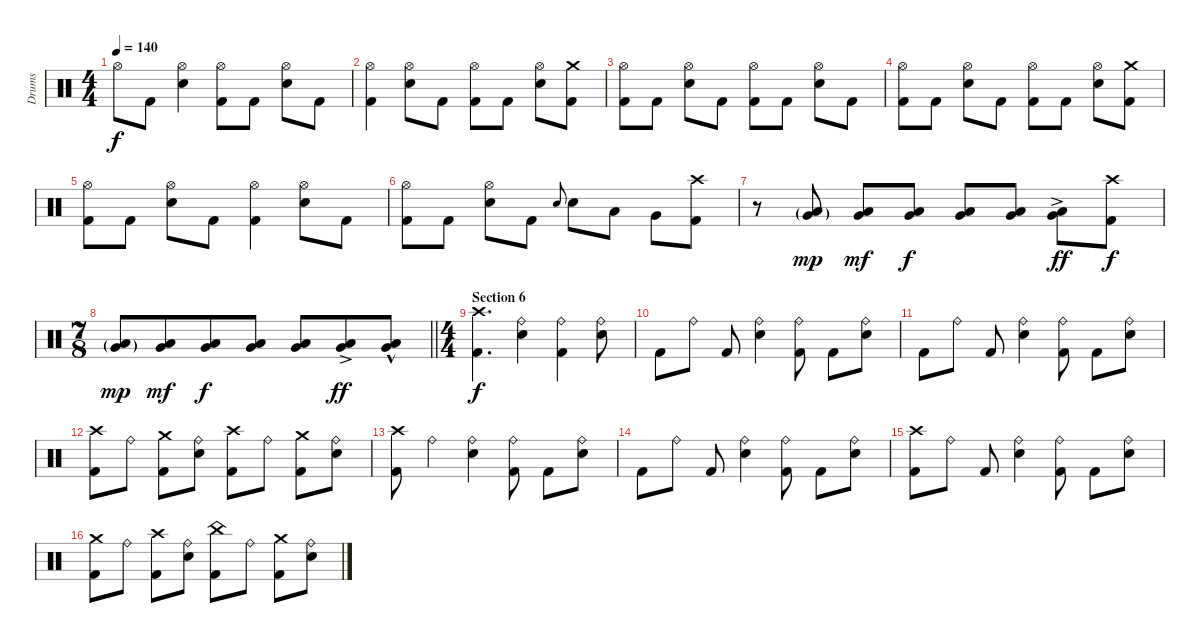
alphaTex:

\track ("Drums" "Drums") {instrument percussion}
\staff {score}
\articulation defaults
\ts (4 4)
\tempo 140
\clef neutral
\ks c "Hi-Hat (open)".8{dy f} "Kick (hit) 2".8
("Hi-Hat (open)" "Snare (hit) 2").4 ("Hi-Hat (open)" "Kick (hit) 2").8 "Kick (hit) 2".8 ("Hi-Hat (open)" "Snare (hit) 2").8 "Kick (hit) 2".8 |
("Hi-Hat (open)" "Kick (hit) 2").4 ("Hi-Hat (open)" "Snare (hit) 2").8 "Kick (hit) 2".8 ("Hi-Hat (open)" "Kick (hit) 2").8 "Kick (hit) 2".8 ("Hi-Hat (open)" "Snare (hit) 2").8 ("Crash medium (hit)" "Kick (hit) 2").8 |
("Hi-Hat (open)" "Kick (hit) 2").8 "Kick (hit) 2".8 ("Hi-Hat (open)" "Snare (hit) 2").8 "Kick (hit) 2".8 ("Hi-Hat (open)" "Kick (hit) 2").8 "Kick (hit) 2".8 ("Hi-Hat (open)" "Snare (hit) 2").8 "Kick (hit) 2".8 |
("Hi-Hat (open)" "Kick (hit) 2").8 "Kick (hit) 2".8 ("Hi-Hat (open)" "Snare (hit) 2").8 "Kick (hit) 2".8 ("Hi-Hat (open)" "Kick (hit) 2").8 "Kick (hit) 2".8 ("Hi-Hat (open)" "Snare (hit) 2").8 ("Crash medium (hit)" "Kick (hit) 2").8 |
("Hi-Hat (open)" "Kick (hit) 2").8 "Kick (hit) 2".8 ("Hi-Hat (open)" "Snare (hit) 2").8 "Kick (hit) 2".8 ("Hi-Hat (open)" "Kick (hit) 2").4 ("Hi-Hat (open)" "Snare (hit) 2").8 "Kick (hit) 2".8 |
("Hi-Hat (open)" "Kick (hit) 2").8 "Kick (hit) 2".8 ("Hi-Hat (open)" "Snare (hit) 2").8 "Kick (hit) 2".8 "Snare (hit) 2"{h}.8{gr onbeat} "Snare (hit) 2".8 "Low Tom (hit)".8 "Very Low Tom (hit)".8 ("Crash high (hit)" "Kick (hit) 2").8 |
r.8 ("Low Tom (hit)"{g} "Very Low Tom (hit)"{g}).8{dy mp} ("Low Tom (hit)" "Very Low Tom (hit)").8{dy mf} ("Low Tom (hit)" "Very Low Tom (hit)").8{dy f} ("Low Tom (hit)" "Very Low Tom (hit)").8 ("Low Tom (hit)" "Very Low Tom (hit)").8 ("Low Tom (hit)"{ac} "Very Low Tom (hit)"{ac}).8{dy ff} ("Crash high (hit)" "Kick (hit) 2").8{dy f} |
\ts (7 8)
\barLineRight lightlight
("Low Tom (hit)"{g} "Very Low Tom (hit)"{g}).8{dy mp} ("Low Tom (hit)" "Very Low Tom (hit)").8{dy mf} ("Low Tom (hit)" "Very Low Tom (hit)").8{dy f} ("Low Tom (hit)" "Very Low Tom (hit)").8 ("Low Tom (hit)" "Very Low Tom (hit)").8 ("Low Tom (hit)"{ac} "Very Low Tom (hit)"{ac}).8{dy ff} ("Low Tom (hit)"{hac} "Very Low Tom (hit)"{hac}).8 |
\ts (4 4)
\section ("" "Section 6")
("Crash high (hit)" "Kick (hit) 2").4{d dy f} ("Ride (bell)" "Snare (hit) 2").4 ("Ride (bell)" "Kick (hit) 2").4 ("Ride (bell)" "Snare (hit) 2").8 |
"Kick (hit) 2".8 "Ride (bell)".8 "Kick (hit) 2".8 ("Ride (bell)" "Snare (hit) 2").4 ("Ride (bell)" "Kick (hit) 2").8 "Kick (hit) 2".8 ("Ride (bell)" "Snare (hit) 2").8 |
"Kick (hit) 2".8 "Ride (bell)".8 "Kick (hit) 2".8 ("Ride (bell)" "Snare (hit) 2").4 ("Ride (bell)" "Kick (hit) 2").8 "Kick (hit) 2".8 ("Ride (bell)" "Snare (hit) 2").8 |
("Crash high (hit)" "Kick (hit) 2").8 "Ride (bell)".8 ("Crash medium (hit)" "Kick (hit) 2").8 ("Ride (bell)" "Snare (hit) 2").8 ("Crash high (hit)" "Kick (hit) 2").8 "Ride (bell)".8 ("Crash medium (hit)" "Kick (hit) 2").8 ("Ride (bell)" "Snare (hit) 2").8 |
("Crash high (hit)" "Kick (hit) 2").8 "Ride (bell)".4 ("Ride (bell)" "Snare (hit) 2").4 ("Ride (bell)" "Kick (hit) 2").8 "Kick (hit) 2".8 ("Ride (bell)" "Snare (hit) 2").8 |
"Kick (hit) 2".8 "Ride (bell)".8 "Kick (hit) 2".8 ("Ride (bell)" "Snare (hit) 2").4 ("Ride (bell)" "Kick (hit) 2").8 "Kick (hit) 2".8 ("Ride (bell)" "Snare (hit) 2").8 |
("Crash high (hit)" "Kick (hit) 2").8 "Ride (bell)".8 "Kick (hit) 2".8 ("Ride (bell)" "Snare (hit) 2").4 ("Ride (bell)" "Kick (hit) 2").8 "Kick (hit) 2".8 ("Ride (bell)" "Snare (hit) 2").8 |
("Crash medium (hit)" "Kick (hit) 2").8 "Ride (bell)".8 ("Crash high (hit)" "Kick (hit) 2").8 ("Ride (bell)" "Snare (hit) 2").8 ("China (hit)" "Kick (hit) 2").8 "Ride (bell)".8 ("Crash medium (hit)" "Kick (hit) 2").8 ("Ride (bell)" "Snare (hit) 2").8
